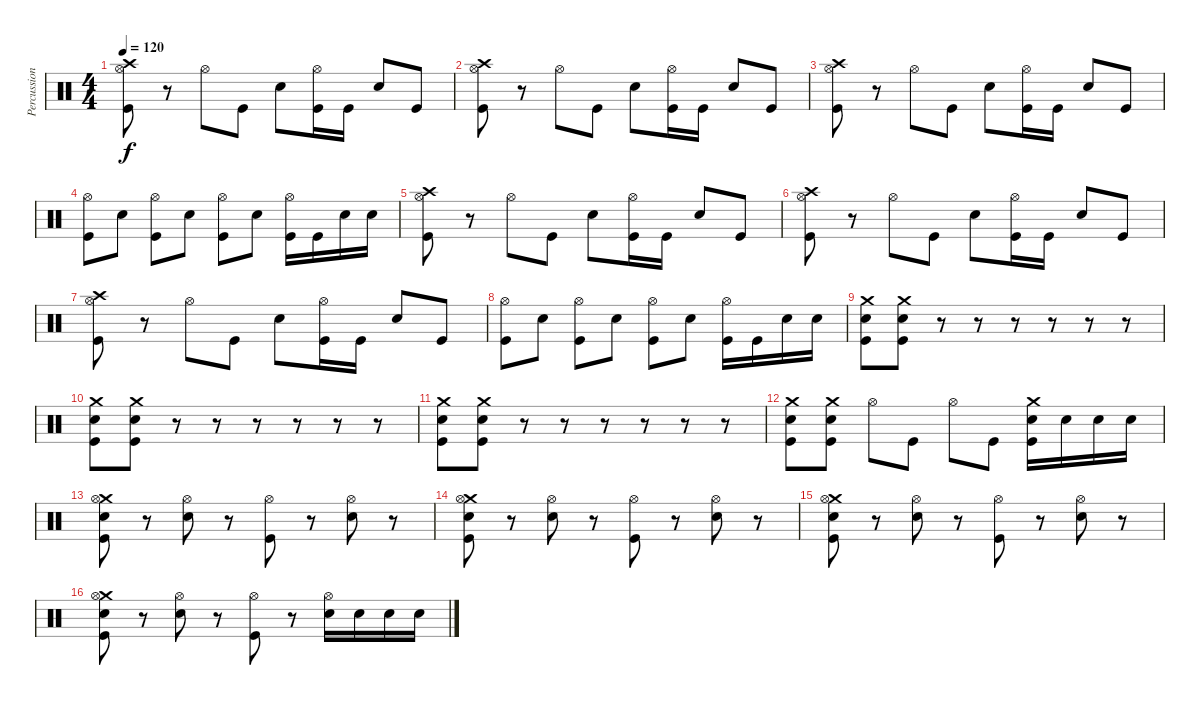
\track ("Percussion" "Percussion") {instrument percussion}
\staff {score}
\articulation defaults
\ts (4 4)
\tempo 120
\clef neutral
\ks c
("Crash high (hit)" "Hi-Hat (open)" "Kick (hit)").8{dy f} r.8 "Hi-Hat (open)".8 "Kick (hit)".8 "Electric Snare (hit)".8 ("Hi-Hat (open)" "Kick (hit)").16 "Kick (hit)".16 "Electric Snare (hit)".8 "Kick (hit)".8 |
("Crash high (hit)" "Hi-Hat (open)" "Kick (hit)").8 r.8 "Hi-Hat (open)".8 "Kick (hit)".8 "Electric Snare (hit)".8 ("Hi-Hat (open)" "Kick (hit)").16 "Kick (hit)".16 "Electric Snare (hit)".8 "Kick (hit)".8 |
("Crash high (hit)" "Hi-Hat (open)" "Kick (hit)").8 r.8 "Hi-Hat (open)".8 "Kick (hit)".8 "Electric Snare (hit)".8 ("Hi-Hat (open)" "Kick (hit)").16 "Kick (hit)".16 "Electric Snare (hit)".8 "Kick (hit)".8 |
("Hi-Hat (open)" "Kick (hit)").8 "Electric Snare (hit)".8 ("Hi-Hat (open)" "Kick (hit)").8 "Electric Snare (hit)".8 ("Hi-Hat (open)" "Kick (hit)").8 "Electric Snare (hit)".8 ("Hi-Hat (open)" "Kick (hit)").16 "Kick (hit)".16 "Electric Snare (hit)".16 "Electric Snare (hit)".16 |
("Crash high (hit)" "Hi-Hat (open)" "Kick (hit)").8 r.8 "Hi-Hat (open)".8 "Kick (hit)".8 "Electric Snare (hit)".8 ("Hi-Hat (open)" "Kick (hit)").16 "Kick (hit)".16 "Electric Snare (hit)".8 "Kick (hit)".8 |
("Crash high (hit)" "Hi-Hat (open)" "Kick (hit)").8 r.8 "Hi-Hat (open)".8 "Kick (hit)".8 "Electric Snare (hit)".8 ("Hi-Hat (open)" "Kick (hit)").16 "Kick (hit)".16 "Electric Snare (hit)".8 "Kick (hit)".8 |
("Crash high (hit)" "Hi-Hat (open)" "Kick (hit)").8 r.8 "Hi-Hat (open)".8 "Kick (hit)".8 "Electric Snare (hit)".8 ("Hi-Hat (open)" "Kick (hit)").16 "Kick (hit)".16 "Electric Snare (hit)".8 "Kick (hit)".8 |
("Hi-Hat (open)" "Kick (hit)").8 "Electric Snare (hit)".8 ("Hi-Hat (open)" "Kick (hit)").8 "Electric Snare (hit)".8 ("Hi-Hat (open)" "Kick (hit)").8 "Electric Snare (hit)".8 ("Hi-Hat (open)" "Kick (hit)").16 "Kick (hit)".16 "Electric Snare (hit)".16 "Electric Snare (hit)".16 |
("Crash medium (hit)" "Electric Snare (hit)" "Kick (hit)").8 ("Crash medium (hit)" "Electric Snare (hit)" "Kick (hit)").8 r.8 r.8 r.8 r.8 r.8 r.8 |
("Crash medium (hit)" "Electric Snare (hit)" "Kick (hit)").8 ("Crash medium (hit)" "Electric Snare (hit)" "Kick (hit)").8 r.8 r.8 r.8 r.8 r.8 r.8 |
("Crash medium (hit)" "Electric Snare (hit)" "Kick (hit)").8 ("Crash medium (hit)" "Electric Snare (hit)" "Kick (hit)").8 r.8 r.8 r.8 r.8 r.8 r.8 |
("Crash medium (hit)" "Electric Snare (hit)" "Kick (hit)").8 ("Crash medium (hit)" "Electric Snare (hit)" "Kick (hit)").8 "Hi-Hat (open)".8 "Kick (hit)".8 "Hi-Hat (open)".8 "Kick (hit)".8 ("Crash medium (hit)" "Electric Snare (hit)" "Kick (hit)").16 "Electric Snare (hit)".16 "Electric Snare (hit)".16 "Electric Snare (hit)".16 |
("Crash medium (hit)" "Hi-Hat (open)" "Electric Snare (hit)" "Kick (hit)").8 r.8 ("Hi-Hat (open)" "Electric Snare (hit)").8 r.8 ("Hi-Hat (open)" "Kick (hit)").8 r.8 ("Hi-Hat (open)" "Electric Snare (hit)").8 r.8 |
("Crash medium (hit)" "Hi-Hat (open)" "Electric Snare (hit)" "Kick (hit)").8 r.8 ("Hi-Hat (open)" "Electric Snare (hit)").8 r.8 ("Hi-Hat (open)" "Kick (hit)").8 r.8 ("Hi-Hat (open)" "Electric Snare (hit)").8 r.8 |
("Crash medium (hit)" "Hi-Hat (open)" "Electric Snare (hit)" "Kick (hit)").8 r.8 ("Hi-Hat (open)" "Electric Snare (hit)").8 r.8 ("Hi-Hat (open)" "Kick (hit)").8 r.8 ("Hi-Hat (open)" "Electric Snare (hit)").8 r.8 |
("Crash medium (hit)" "Hi-Hat (open)" "Electric Snare (hit)" "Kick (hit)").8 r.8 ("Hi-Hat (open)" "Electric Snare (hit)").8 r.8 ("Hi-Hat (open)" "Kick (hit)").8 r.8 ("Hi-Hat (open)" "Electric Snare (hit)").16 "Electric Snare (hit)".16 "Electric Snare (hit)".16 "Electric Snare (hit)".16
